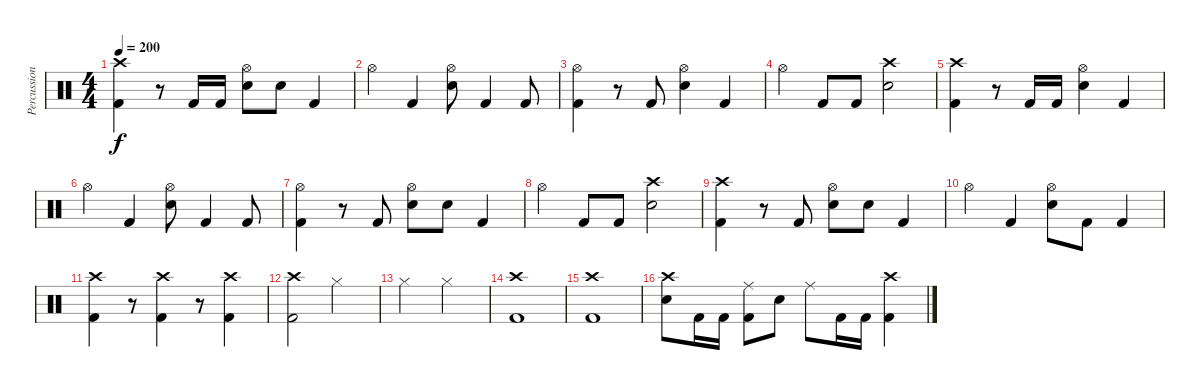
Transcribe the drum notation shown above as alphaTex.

\track ("Percussion" "Percussion") {instrument percussion}
\staff {score}
\articulation defaults
\ts (4 4)
\tempo 200
\clef neutral
\ks c
("Crash high (hit)" "Kick (hit) 2").4{dy f} r.8 "Kick (hit) 2".16 "Kick (hit) 2".16 ("Hi-Hat (open)" "Snare (hit) 2").8 "Snare (hit) 2".8 "Kick (hit) 2".4 |
"Hi-Hat (open)".4 "Kick (hit) 2".4 ("Hi-Hat (open)" "Snare (hit) 2").8 "Kick (hit) 2".4 "Kick (hit) 2".8 |
("Hi-Hat (open)" "Kick (hit) 2").4 r.8 "Kick (hit) 2".8 ("Hi-Hat (open)" "Snare (hit) 2").4 "Kick (hit) 2".4 |
"Hi-Hat (open)".4 "Kick (hit) 2".8 "Kick (hit) 2".8 ("Crash high (hit)" "Snare (hit) 2").2 |
("Crash high (hit)" "Kick (hit) 2").4 r.8 "Kick (hit) 2".16 "Kick (hit) 2".16 ("Hi-Hat (open)" "Snare (hit) 2").4 "Kick (hit) 2".4 |
"Hi-Hat (open)".4 "Kick (hit) 2".4 ("Hi-Hat (open)" "Snare (hit) 2").8 "Kick (hit) 2".4 "Kick (hit) 2".8 |
("Hi-Hat (open)" "Kick (hit) 2").4 r.8 "Kick (hit) 2".8 ("Hi-Hat (open)" "Snare (hit) 2").8 "Snare (hit) 2".8 "Kick (hit) 2".4 |
"Hi-Hat (open)".4 "Kick (hit) 2".8 "Kick (hit) 2".8 ("Crash high (hit)" "Snare (hit) 2").2 |
("Crash high (hit)" "Kick (hit) 2").4 r.8 "Kick (hit) 2".8 ("Hi-Hat (open)" "Snare (hit) 2").8 "Snare (hit) 2".8 "Kick (hit) 2".4 |
"Hi-Hat (open)".4 "Kick (hit) 2".4 ("Hi-Hat (open)" "Snare (hit) 2").8 "Kick (hit) 2".8 "Kick (hit) 2".4 |
("Crash high (hit)" "Kick (hit) 2").4 r.8 ("Crash high (hit)" "Kick (hit) 2").4 r.8 ("Crash high (hit)" "Kick (hit) 2").4 |
("Crash high (hit)" "Kick (hit) 2").2 "Hi-Hat (closed)".2 |
"Hi-Hat (closed)".2 "Hi-Hat (closed)".2 |
("Crash high (hit)" "Kick (hit) 2").1 |
("Crash high (hit)" "Kick (hit) 2").1 |
("Crash high (hit)" "Snare (hit) 2").8 "Kick (hit) 2".16 "Kick (hit) 2".16 ("Ride (middle)" "Kick (hit) 2").8 "Snare (hit) 2".8 "Ride (middle)".8 "Kick (hit) 2".16 "Kick (hit) 2".16 ("Crash high (hit)" "Kick (hit) 2").4
